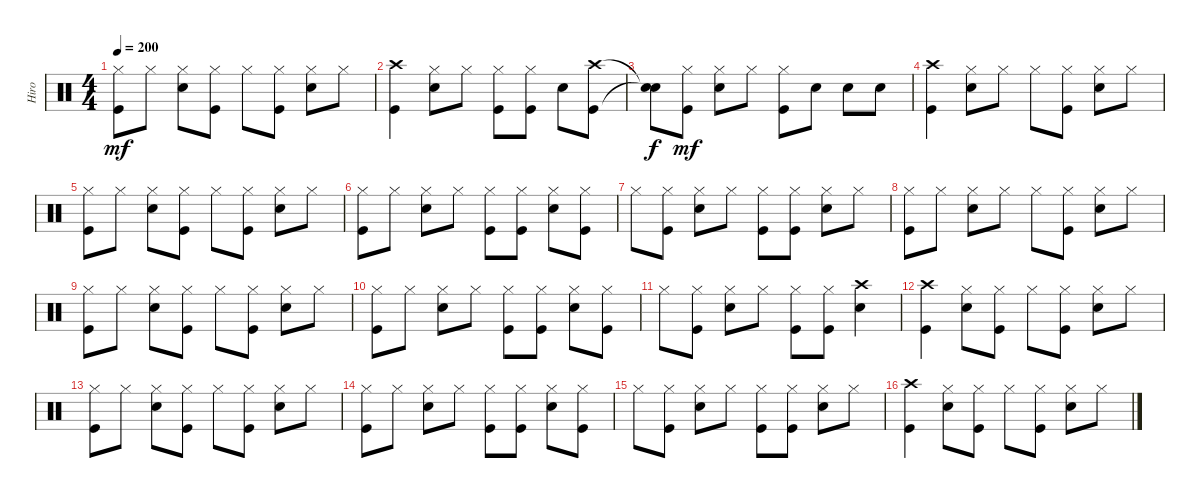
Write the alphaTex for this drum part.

\track ("Hiro" "Hiro") {instrument percussion}
\staff {score}
\articulation defaults
\ts (4 4)
\tempo 200
\clef neutral
\ks c
("Kick (hit)" "Hi-Hat (closed)").8{dy mf} "Hi-Hat (closed)".8 ("Electric Snare (hit)" "Hi-Hat (closed)").8 ("Kick (hit)" "Hi-Hat (closed)").8 "Hi-Hat (closed)".8 ("Kick (hit)" "Hi-Hat (closed)").8 ("Electric Snare (hit)" "Hi-Hat (closed)").8 "Hi-Hat (closed)".8 |
("Crash high (hit)" "Kick (hit)").4 ("Electric Snare (hit)" "Hi-Hat (closed)").8 "Hi-Hat (closed)".8 ("Kick (hit)" "Hi-Hat (closed)").8 ("Kick (hit)" "Hi-Hat (closed)").8 "Electric Snare (hit)".8 ("Kick (hit)" "Crash high (hit)").8 |
("Snare (hit)"{t} "Snare (hit)"{t}).8{dy f} ("Kick (hit)" "Hi-Hat (closed)").8{dy mf} ("Electric Snare (hit)" "Hi-Hat (closed)").8 "Hi-Hat (closed)".8 ("Kick (hit)" "Hi-Hat (closed)").8 "Electric Snare (hit)".8 "Electric Snare (hit)".8 "Electric Snare (hit)".8 |
("Kick (hit)" "Crash high (hit)").4 ("Hi-Hat (closed)" "Electric Snare (hit)").8 "Hi-Hat (closed)".8 "Hi-Hat (closed)".8 ("Hi-Hat (closed)" "Kick (hit)").8 ("Hi-Hat (closed)" "Electric Snare (hit)").8 "Hi-Hat (closed)".8 |
("Hi-Hat (closed)" "Kick (hit)").8 "Hi-Hat (closed)".8 ("Hi-Hat (closed)" "Electric Snare (hit)").8 ("Hi-Hat (closed)" "Kick (hit)").8 "Hi-Hat (closed)".8 ("Hi-Hat (closed)" "Kick (hit)").8 ("Hi-Hat (closed)" "Electric Snare (hit)").8 "Hi-Hat (closed)".8 |
("Hi-Hat (closed)" "Kick (hit)").8 "Hi-Hat (closed)".8 ("Hi-Hat (closed)" "Electric Snare (hit)").8 "Hi-Hat (closed)".8 ("Hi-Hat (closed)" "Kick (hit)").8 ("Hi-Hat (closed)" "Kick (hit)").8 ("Hi-Hat (closed)" "Electric Snare (hit)").8 ("Hi-Hat (closed)" "Kick (hit)").8 |
"Hi-Hat (closed)".8 ("Hi-Hat (closed)" "Kick (hit)").8 ("Hi-Hat (closed)" "Electric Snare (hit)").8 "Hi-Hat (closed)".8 ("Hi-Hat (closed)" "Kick (hit)").8 ("Hi-Hat (closed)" "Kick (hit)").8 ("Hi-Hat (closed)" "Electric Snare (hit)").8 "Hi-Hat (closed)".8 |
("Hi-Hat (closed)" "Kick (hit)").8 "Hi-Hat (closed)".8 ("Hi-Hat (closed)" "Electric Snare (hit)").8 "Hi-Hat (closed)".8 "Hi-Hat (closed)".8 ("Hi-Hat (closed)" "Kick (hit)").8 ("Hi-Hat (closed)" "Electric Snare (hit)").8 "Hi-Hat (closed)".8 |
("Hi-Hat (closed)" "Kick (hit)").8 "Hi-Hat (closed)".8 ("Hi-Hat (closed)" "Electric Snare (hit)").8 ("Hi-Hat (closed)" "Kick (hit)").8 "Hi-Hat (closed)".8 ("Hi-Hat (closed)" "Kick (hit)").8 ("Hi-Hat (closed)" "Electric Snare (hit)").8 "Hi-Hat (closed)".8 |
("Hi-Hat (closed)" "Kick (hit)").8 "Hi-Hat (closed)".8 ("Hi-Hat (closed)" "Electric Snare (hit)").8 "Hi-Hat (closed)".8 ("Hi-Hat (closed)" "Kick (hit)").8 ("Hi-Hat (closed)" "Kick (hit)").8 ("Hi-Hat (closed)" "Electric Snare (hit)").8 ("Hi-Hat (closed)" "Kick (hit)").8 |
"Hi-Hat (closed)".8 ("Hi-Hat (closed)" "Kick (hit)").8 ("Hi-Hat (closed)" "Electric Snare (hit)").8 "Hi-Hat (closed)".8 ("Hi-Hat (closed)" "Kick (hit)").8 ("Hi-Hat (closed)" "Kick (hit)").8 ("Crash high (hit)" "Electric Snare (hit)").4 |
("Kick (hit)" "Crash high (hit)").4 ("Hi-Hat (closed)" "Electric Snare (hit)").8 ("Hi-Hat (closed)" "Kick (hit)").8 "Hi-Hat (closed)".8 ("Hi-Hat (closed)" "Kick (hit)").8 ("Hi-Hat (closed)" "Electric Snare (hit)").8 "Hi-Hat (closed)".8 |
("Hi-Hat (closed)" "Kick (hit)").8 "Hi-Hat (closed)".8 ("Hi-Hat (closed)" "Electric Snare (hit)").8 ("Hi-Hat (closed)" "Kick (hit)").8 "Hi-Hat (closed)".8 ("Hi-Hat (closed)" "Kick (hit)").8 ("Hi-Hat (closed)" "Electric Snare (hit)").8 "Hi-Hat (closed)".8 |
("Hi-Hat (closed)" "Kick (hit)").8 "Hi-Hat (closed)".8 ("Hi-Hat (closed)" "Electric Snare (hit)").8 "Hi-Hat (closed)".8 ("Hi-Hat (closed)" "Kick (hit)").8 ("Hi-Hat (closed)" "Kick (hit)").8 ("Hi-Hat (closed)" "Electric Snare (hit)").8 ("Hi-Hat (closed)" "Kick (hit)").8 |
"Hi-Hat (closed)".8 ("Hi-Hat (closed)" "Kick (hit)").8 ("Hi-Hat (closed)" "Electric Snare (hit)").8 "Hi-Hat (closed)".8 ("Hi-Hat (closed)" "Kick (hit)").8 ("Hi-Hat (closed)" "Kick (hit)").8 ("Hi-Hat (closed)" "Electric Snare (hit)").8 "Hi-Hat (closed)".8 |
("Kick (hit)" "Crash high (hit)").4 ("Hi-Hat (closed)" "Electric Snare (hit)").8 ("Hi-Hat (closed)" "Kick (hit)").8 "Hi-Hat (closed)".8 ("Hi-Hat (closed)" "Kick (hit)").8 ("Hi-Hat (closed)" "Electric Snare (hit)").8 "Hi-Hat (closed)".8
